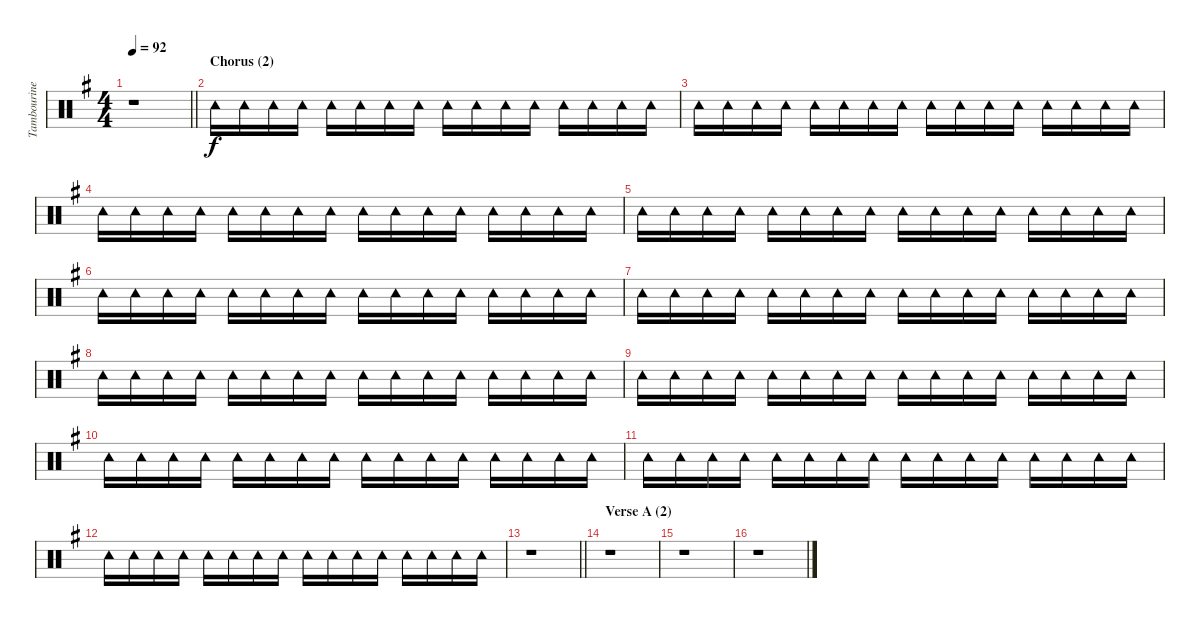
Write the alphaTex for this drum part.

\track ("Tambourine" "Tambourine") {instrument percussion}
\staff {score}
\articulation defaults
\ts (4 4)
\tempo 92
\clef neutral
\barLineRight lightlight
\ks g
r.1{dy f} |
\section ("" "Chorus (2)")
"Tambourine (hit)".16 "Tambourine (hit)".16 "Tambourine (hit)".16 "Tambourine (hit)".16 "Tambourine (hit)".16 "Tambourine (hit)".16 "Tambourine (hit)".16 "Tambourine (hit)".16 "Tambourine (hit)".16 "Tambourine (hit)".16 "Tambourine (hit)".16 "Tambourine (hit)".16 "Tambourine (hit)".16 "Tambourine (hit)".16 "Tambourine (hit)".16 "Tambourine (hit)".16 |
"Tambourine (hit)".16 "Tambourine (hit)".16 "Tambourine (hit)".16 "Tambourine (hit)".16 "Tambourine (hit)".16 "Tambourine (hit)".16 "Tambourine (hit)".16 "Tambourine (hit)".16 "Tambourine (hit)".16 "Tambourine (hit)".16 "Tambourine (hit)".16 "Tambourine (hit)".16 "Tambourine (hit)".16 "Tambourine (hit)".16 "Tambourine (hit)".16 "Tambourine (hit)".16 |
"Tambourine (hit)".16 "Tambourine (hit)".16 "Tambourine (hit)".16 "Tambourine (hit)".16 "Tambourine (hit)".16 "Tambourine (hit)".16 "Tambourine (hit)".16 "Tambourine (hit)".16 "Tambourine (hit)".16 "Tambourine (hit)".16 "Tambourine (hit)".16 "Tambourine (hit)".16 "Tambourine (hit)".16 "Tambourine (hit)".16 "Tambourine (hit)".16 "Tambourine (hit)".16 |
"Tambourine (hit)".16 "Tambourine (hit)".16 "Tambourine (hit)".16 "Tambourine (hit)".16 "Tambourine (hit)".16 "Tambourine (hit)".16 "Tambourine (hit)".16 "Tambourine (hit)".16 "Tambourine (hit)".16 "Tambourine (hit)".16 "Tambourine (hit)".16 "Tambourine (hit)".16 "Tambourine (hit)".16 "Tambourine (hit)".16 "Tambourine (hit)".16 "Tambourine (hit)".16 |
"Tambourine (hit)".16 "Tambourine (hit)".16 "Tambourine (hit)".16 "Tambourine (hit)".16 "Tambourine (hit)".16 "Tambourine (hit)".16 "Tambourine (hit)".16 "Tambourine (hit)".16 "Tambourine (hit)".16 "Tambourine (hit)".16 "Tambourine (hit)".16 "Tambourine (hit)".16 "Tambourine (hit)".16 "Tambourine (hit)".16 "Tambourine (hit)".16 "Tambourine (hit)".16 |
"Tambourine (hit)".16 "Tambourine (hit)".16 "Tambourine (hit)".16 "Tambourine (hit)".16 "Tambourine (hit)".16 "Tambourine (hit)".16 "Tambourine (hit)".16 "Tambourine (hit)".16 "Tambourine (hit)".16 "Tambourine (hit)".16 "Tambourine (hit)".16 "Tambourine (hit)".16 "Tambourine (hit)".16 "Tambourine (hit)".16 "Tambourine (hit)".16 "Tambourine (hit)".16 |
"Tambourine (hit)".16 "Tambourine (hit)".16 "Tambourine (hit)".16 "Tambourine (hit)".16 "Tambourine (hit)".16 "Tambourine (hit)".16 "Tambourine (hit)".16 "Tambourine (hit)".16 "Tambourine (hit)".16 "Tambourine (hit)".16 "Tambourine (hit)".16 "Tambourine (hit)".16 "Tambourine (hit)".16 "Tambourine (hit)".16 "Tambourine (hit)".16 "Tambourine (hit)".16 |
"Tambourine (hit)".16 "Tambourine (hit)".16 "Tambourine (hit)".16 "Tambourine (hit)".16 "Tambourine (hit)".16 "Tambourine (hit)".16 "Tambourine (hit)".16 "Tambourine (hit)".16 "Tambourine (hit)".16 "Tambourine (hit)".16 "Tambourine (hit)".16 "Tambourine (hit)".16 "Tambourine (hit)".16 "Tambourine (hit)".16 "Tambourine (hit)".16 "Tambourine (hit)".16 |
"Tambourine (hit)".16 "Tambourine (hit)".16 "Tambourine (hit)".16 "Tambourine (hit)".16 "Tambourine (hit)".16 "Tambourine (hit)".16 "Tambourine (hit)".16 "Tambourine (hit)".16 "Tambourine (hit)".16 "Tambourine (hit)".16 "Tambourine (hit)".16 "Tambourine (hit)".16 "Tambourine (hit)".16 "Tambourine (hit)".16 "Tambourine (hit)".16 "Tambourine (hit)".16 |
"Tambourine (hit)".16 "Tambourine (hit)".16 "Tambourine (hit)".16 "Tambourine (hit)".16 "Tambourine (hit)".16 "Tambourine (hit)".16 "Tambourine (hit)".16 "Tambourine (hit)".16 "Tambourine (hit)".16 "Tambourine (hit)".16 "Tambourine (hit)".16 "Tambourine (hit)".16 "Tambourine (hit)".16 "Tambourine (hit)".16 "Tambourine (hit)".16 "Tambourine (hit)".16 |
"Tambourine (hit)".16 "Tambourine (hit)".16 "Tambourine (hit)".16 "Tambourine (hit)".16 "Tambourine (hit)".16 "Tambourine (hit)".16 "Tambourine (hit)".16 "Tambourine (hit)".16 "Tambourine (hit)".16 "Tambourine (hit)".16 "Tambourine (hit)".16 "Tambourine (hit)".16 "Tambourine (hit)".16 "Tambourine (hit)".16 "Tambourine (hit)".16 "Tambourine (hit)".16 |
\barLineRight lightlight
r.1 |
\section ("" "Verse A (2)")
r.1 |
r.1 |
r.1
